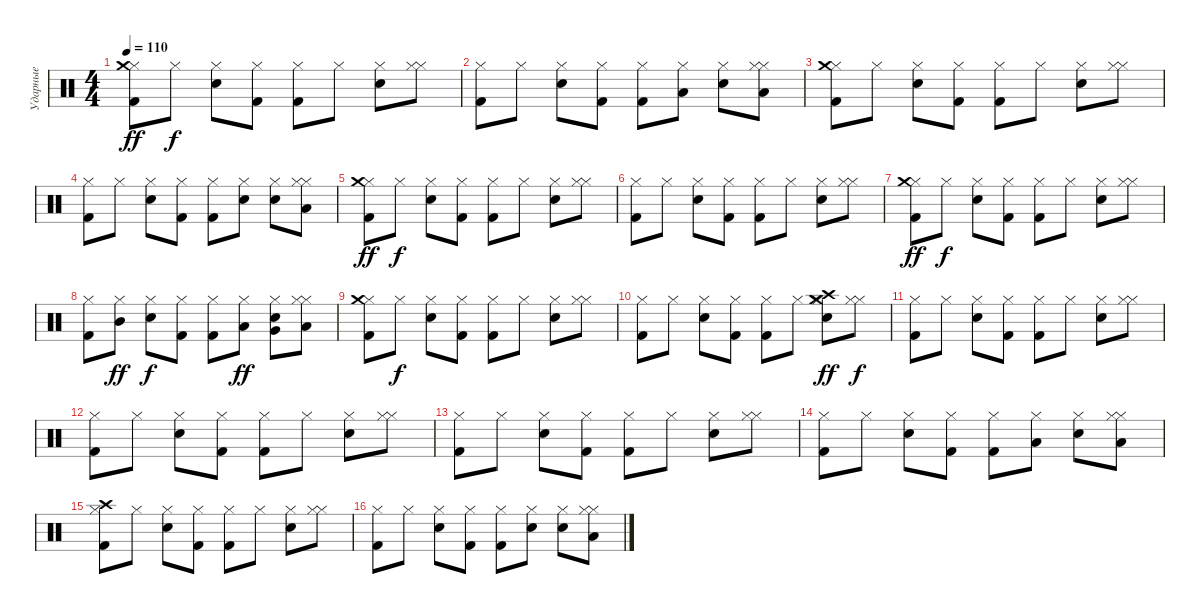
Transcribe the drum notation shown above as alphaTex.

\track ("Ударные" "Ударные") {instrument percussion}
\staff {score}
\articulation defaults
\ts (4 4)
\tempo 110
\clef neutral
\ks c
("Kick (hit) 2" "Hi-Hat (closed)" "Crash medium (hit)").8{dy ff} "Hi-Hat (closed)".8{dy f} ("Electric Snare (hit)" "Hi-Hat (closed)").8 ("Kick (hit) 2" "Hi-Hat (closed)").8 ("Kick (hit) 2" "Hi-Hat (closed)").8 "Hi-Hat (closed)".8 ("Electric Snare (hit)" "Hi-Hat (closed)").8 ("Hi-Hat (closed)" "Hi-Hat (closed)").8 |
("Kick (hit) 2" "Hi-Hat (closed)").8 "Hi-Hat (closed)".8 ("Electric Snare (hit)" "Hi-Hat (closed)").8 ("Kick (hit) 2" "Hi-Hat (closed)").8 ("Kick (hit) 2" "Hi-Hat (closed)").8 ("Hi-Hat (closed)" "Low Tom (hit)").8 ("Electric Snare (hit)" "Hi-Hat (closed)").8 ("Hi-Hat (closed)" "Hi-Hat (closed)" "Low Floor Tom (hit)").8 |
("Kick (hit) 2" "Hi-Hat (closed)" "Crash medium (hit)").8 "Hi-Hat (closed)".8 ("Electric Snare (hit)" "Hi-Hat (closed)").8 ("Kick (hit) 2" "Hi-Hat (closed)").8 ("Kick (hit) 2" "Hi-Hat (closed)").8 "Hi-Hat (closed)".8 ("Electric Snare (hit)" "Hi-Hat (closed)").8 ("Hi-Hat (closed)" "Hi-Hat (closed)").8 |
("Kick (hit) 2" "Hi-Hat (closed)").8 "Hi-Hat (closed)".8 ("Electric Snare (hit)" "Hi-Hat (closed)").8 ("Kick (hit) 2" "Hi-Hat (closed)").8 ("Kick (hit) 2" "Hi-Hat (closed)").8 ("Hi-Hat (closed)" "Electric Snare (hit)").8 ("Electric Snare (hit)" "Hi-Hat (closed)").8 ("Hi-Hat (closed)" "Hi-Hat (closed)" "Low Tom (hit)").8 |
("Kick (hit) 2" "Hi-Hat (closed)" "Crash medium (hit)").8{dy ff} "Hi-Hat (closed)".8{dy f} ("Electric Snare (hit)" "Hi-Hat (closed)").8 ("Kick (hit) 2" "Hi-Hat (closed)").8 ("Kick (hit) 2" "Hi-Hat (closed)").8 "Hi-Hat (closed)".8 ("Electric Snare (hit)" "Hi-Hat (closed)").8 ("Hi-Hat (closed)" "Hi-Hat (closed)").8 |
("Kick (hit) 2" "Hi-Hat (closed)").8 "Hi-Hat (closed)".8 ("Electric Snare (hit)" "Hi-Hat (closed)").8 ("Kick (hit) 2" "Hi-Hat (closed)").8 ("Kick (hit) 2" "Hi-Hat (closed)").8 "Hi-Hat (closed)".8 ("Electric Snare (hit)" "Hi-Hat (closed)").8 ("Hi-Hat (closed)" "Hi-Hat (closed)").8 |
("Kick (hit) 2" "Hi-Hat (closed)" "Crash medium (hit)").8{dy ff} "Hi-Hat (closed)".8{dy f} ("Electric Snare (hit)" "Hi-Hat (closed)").8 ("Kick (hit) 2" "Hi-Hat (closed)").8 ("Kick (hit) 2" "Hi-Hat (closed)").8 "Hi-Hat (closed)".8 ("Electric Snare (hit)" "Hi-Hat (closed)").8 ("Hi-Hat (closed)" "Hi-Hat (closed)").8 |
("Kick (hit) 2" "Hi-Hat (closed)").8 ("Hi-Hat (closed)" "Mid Tom (hit)").8{dy ff} ("Electric Snare (hit)" "Hi-Hat (closed)").8{dy f} ("Kick (hit) 2" "Hi-Hat (closed)").8 ("Kick (hit) 2" "Hi-Hat (closed)").8 ("Hi-Hat (closed)" "Low Tom (hit)").8{dy ff} ("Electric Snare (hit)" "Hi-Hat (closed)" "Very Low Tom (hit)").8 ("Hi-Hat (closed)" "Hi-Hat (closed)" "Low Floor Tom (hit)").8 |
("Kick (hit) 2" "Hi-Hat (closed)" "Crash medium (hit)").8 "Hi-Hat (closed)".8{dy f} ("Electric Snare (hit)" "Hi-Hat (closed)").8 ("Kick (hit) 2" "Hi-Hat (closed)").8 ("Kick (hit) 2" "Hi-Hat (closed)").8 "Hi-Hat (closed)".8 ("Electric Snare (hit)" "Hi-Hat (closed)").8 ("Hi-Hat (closed)" "Hi-Hat (closed)").8 |
("Kick (hit) 2" "Hi-Hat (closed)").8 "Hi-Hat (closed)".8 ("Electric Snare (hit)" "Hi-Hat (closed)").8 ("Kick (hit) 2" "Hi-Hat (closed)").8 ("Kick (hit) 2" "Hi-Hat (closed)").8 "Hi-Hat (closed)".8 ("Electric Snare (hit)" "Hi-Hat (closed)" "Crash medium (hit)" "Crash high (hit)").8{dy ff} ("Hi-Hat (closed)" "Hi-Hat (closed)").8{dy f} |
("Kick (hit) 2" "Hi-Hat (closed)").8 "Hi-Hat (closed)".8 ("Electric Snare (hit)" "Hi-Hat (closed)").8 ("Kick (hit) 2" "Hi-Hat (closed)").8 ("Kick (hit) 2" "Hi-Hat (closed)").8 "Hi-Hat (closed)".8 ("Electric Snare (hit)" "Hi-Hat (closed)").8 ("Hi-Hat (closed)" "Hi-Hat (closed)").8 |
("Kick (hit) 2" "Hi-Hat (closed)").8 "Hi-Hat (closed)".8 ("Electric Snare (hit)" "Hi-Hat (closed)").8 ("Kick (hit) 2" "Hi-Hat (closed)").8 ("Kick (hit) 2" "Hi-Hat (closed)").8 "Hi-Hat (closed)".8 ("Electric Snare (hit)" "Hi-Hat (closed)").8 ("Hi-Hat (closed)" "Hi-Hat (closed)").8 |
("Kick (hit) 2" "Hi-Hat (closed)").8 "Hi-Hat (closed)".8 ("Electric Snare (hit)" "Hi-Hat (closed)").8 ("Kick (hit) 2" "Hi-Hat (closed)").8 ("Kick (hit) 2" "Hi-Hat (closed)").8 "Hi-Hat (closed)".8 ("Electric Snare (hit)" "Hi-Hat (closed)").8 ("Hi-Hat (closed)" "Hi-Hat (closed)").8 |
("Kick (hit) 2" "Hi-Hat (closed)").8 "Hi-Hat (closed)".8 ("Electric Snare (hit)" "Hi-Hat (closed)").8 ("Kick (hit) 2" "Hi-Hat (closed)").8 ("Kick (hit) 2" "Hi-Hat (closed)").8 ("Hi-Hat (closed)" "Low Tom (hit)").8 ("Electric Snare (hit)" "Hi-Hat (closed)").8 ("Hi-Hat (closed)" "Hi-Hat (closed)" "Low Floor Tom (hit)").8 |
("Kick (hit) 2" "Hi-Hat (closed)" "Crash high (hit)").8 "Hi-Hat (closed)".8 ("Electric Snare (hit)" "Hi-Hat (closed)").8 ("Kick (hit) 2" "Hi-Hat (closed)").8 ("Kick (hit) 2" "Hi-Hat (closed)").8 "Hi-Hat (closed)".8 ("Electric Snare (hit)" "Hi-Hat (closed)").8 ("Hi-Hat (closed)" "Hi-Hat (closed)").8 |
("Kick (hit) 2" "Hi-Hat (closed)").8 "Hi-Hat (closed)".8 ("Electric Snare (hit)" "Hi-Hat (closed)").8 ("Kick (hit) 2" "Hi-Hat (closed)").8 ("Kick (hit) 2" "Hi-Hat (closed)").8 ("Hi-Hat (closed)" "Electric Snare (hit)").8 ("Electric Snare (hit)" "Hi-Hat (closed)").8 ("Hi-Hat (closed)" "Hi-Hat (closed)" "Low Tom (hit)").8
